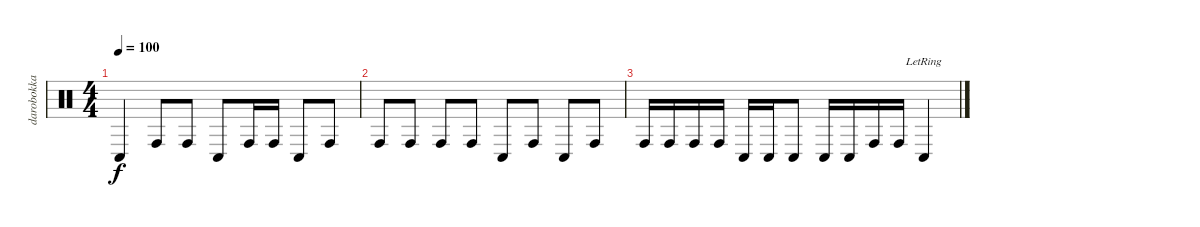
\track ("darobokka" "darobokka") {instrument percussion}
\staff {score}
\articulation defaults
\ts (4 4)
\tempo 100
\clef neutral
\ks c "Conga low (hit)".4{dy f} "Conga high (hit)".8 "Conga high (hit)".8 "Conga low (hit)".8 "Conga high (hit)".16 "Conga high (hit)".16 "Conga low (hit)".8 "Conga high (hit)".8
|
"Conga high (hit)".8 "Conga high (hit)".8 "Conga high (hit)".8 "Conga high (hit)".8 "Conga low (hit)".8 "Conga high (hit)".8 "Conga low (hit)".8 "Conga high (hit)".8 |
"Conga high (hit)".16 "Conga high (hit)".16 "Conga high (hit)".16 "Conga high (hit)".16 "Conga low (hit)".16 "Conga low (hit)".16 "Conga low (hit)".8 "Conga low (hit)".16 "Conga low (hit)".16 "Conga high (hit)".16 "Conga high (hit)".16 "Conga low (hit)"{lr}.4
